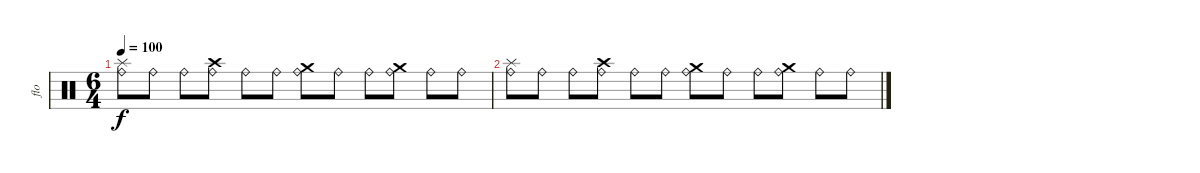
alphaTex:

\track ("flo" "flo") {instrument percussion}
\staff {score}
\articulation defaults
\ts (6 4)
\tempo 100
\clef neutral
\ks c
("Splash (hit)" "Ride (bell)").8{dy f} "Ride (bell)".8 "Ride (bell)".8 ("Crash high (hit)" "Ride (bell)").8 "Ride (bell)".8 "Ride (bell)".8 ("Crash medium (hit)" "Ride (bell)").8 "Ride (bell)".8 "Ride (bell)".8 ("Crash medium (hit)" "Ride (bell)").8 "Ride (bell)".8 "Ride (bell)".8 |
("Splash (hit)" "Ride (bell)").8 "Ride (bell)".8 "Ride (bell)".8 ("Crash high (hit)" "Ride (bell)").8 "Ride (bell)".8 "Ride (bell)".8 ("Crash medium (hit)" "Ride (bell)").8 "Ride (bell)".8 "Ride (bell)".8 ("Crash medium (hit)" "Ride (bell)").8 "Ride (bell)".8 "Ride (bell)".8
